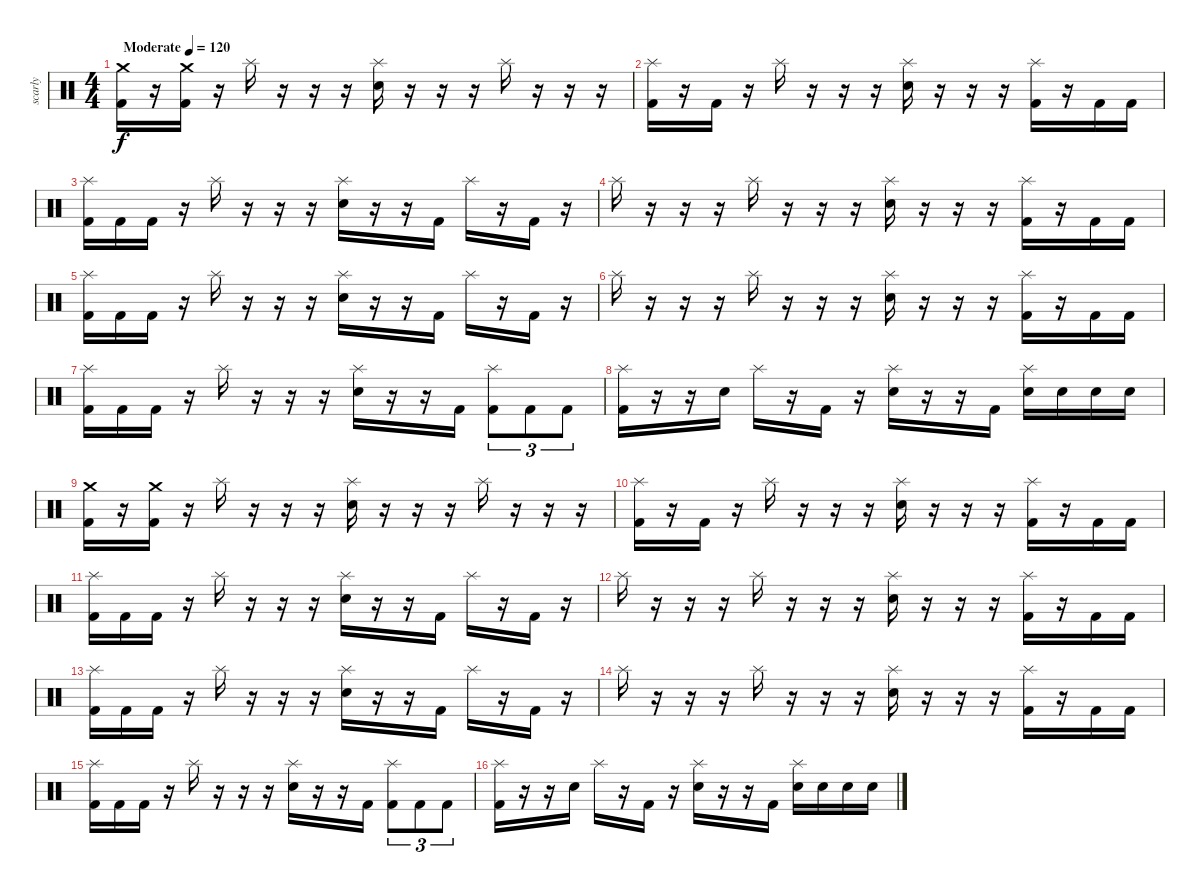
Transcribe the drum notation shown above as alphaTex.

\track ("scarly" "scarly") {instrument percussion}
\staff {score}
\articulation defaults
\ts (4 4)
\tempo (120 "Moderate")
\clef neutral
\ks c
("Kick (hit) 2" "Crash medium (hit)").16{dy f} r.16 ("Kick (hit) 2" "Crash medium (hit)").16 r.16 "Splash (hit)".16 r.16 r.16 r.16 ("Snare (hit) 2" "Splash (hit)").16 r.16 r.16 r.16 "Splash (hit)".16 r.16 r.16 r.16 |
("Kick (hit) 2" "Splash (hit)").16 r.16 "Kick (hit) 2".16 r.16 "Splash (hit)".16 r.16 r.16 r.16 ("Snare (hit) 2" "Splash (hit)").16 r.16 r.16 r.16 ("Kick (hit) 2" "Splash (hit)").16 r.16 "Kick (hit) 2".16 "Kick (hit) 2".16 |
("Kick (hit) 2" "Splash (hit)").16 "Kick (hit) 2".16 "Kick (hit) 2".16 r.16 "Splash (hit)".16 r.16 r.16 r.16 ("Snare (hit) 2" "Splash (hit)").16 r.16 r.16 "Kick (hit) 2".16 "Splash (hit)".16 r.16 "Kick (hit) 2".16 r.16 |
"Splash (hit)".16 r.16 r.16 r.16 "Splash (hit)".16 r.16 r.16 r.16 ("Snare (hit) 2" "Splash (hit)").16 r.16 r.16 r.16 ("Kick (hit) 2" "Splash (hit)").16 r.16 "Kick (hit) 2".16 "Kick (hit) 2".16 |
("Kick (hit) 2" "Splash (hit)").16 "Kick (hit) 2".16 "Kick (hit) 2".16 r.16 "Splash (hit)".16 r.16 r.16 r.16 ("Snare (hit) 2" "Splash (hit)").16 r.16 r.16 "Kick (hit) 2".16 "Splash (hit)".16 r.16 "Kick (hit) 2".16 r.16 |
"Splash (hit)".16 r.16 r.16 r.16 "Splash (hit)".16 r.16 r.16 r.16 ("Snare (hit) 2" "Splash (hit)").16 r.16 r.16 r.16 ("Kick (hit) 2" "Splash (hit)").16 r.16 "Kick (hit) 2".16 "Kick (hit) 2".16 |
("Kick (hit) 2" "Splash (hit)").16 "Kick (hit) 2".16 "Kick (hit) 2".16 r.16 "Splash (hit)".16 r.16 r.16 r.16 ("Snare (hit) 2" "Splash (hit)").16 r.16 r.16 "Kick (hit) 2".16 ("Kick (hit) 2" "Splash (hit)").8{tu (3 2)} "Kick (hit) 2".8{tu (3 2)} "Kick (hit) 2".8{tu (3 2)} |
("Kick (hit) 2" "Splash (hit)").16 r.16 r.16 "Snare (hit) 2".16 "Splash (hit)".16 r.16 "Kick (hit) 2".16 r.16 ("Snare (hit) 2" "Splash (hit)").16 r.16 r.16 "Kick (hit) 2".16 ("Snare (hit) 2" "Splash (hit)").16 "Snare (hit) 2".16 "Snare (hit) 2".16 "Snare (hit) 2".16 |
("Kick (hit) 2" "Crash medium (hit)").16 r.16 ("Kick (hit) 2" "Crash medium (hit)").16 r.16 "Splash (hit)".16 r.16 r.16 r.16 ("Snare (hit) 2" "Splash (hit)").16 r.16 r.16 r.16 "Splash (hit)".16 r.16 r.16 r.16 |
("Kick (hit) 2" "Splash (hit)").16 r.16 "Kick (hit) 2".16 r.16 "Splash (hit)".16 r.16 r.16 r.16 ("Snare (hit) 2" "Splash (hit)").16 r.16 r.16 r.16 ("Kick (hit) 2" "Splash (hit)").16 r.16 "Kick (hit) 2".16 "Kick (hit) 2".16 |
("Kick (hit) 2" "Splash (hit)").16 "Kick (hit) 2".16 "Kick (hit) 2".16 r.16 "Splash (hit)".16 r.16 r.16 r.16 ("Snare (hit) 2" "Splash (hit)").16 r.16 r.16 "Kick (hit) 2".16 "Splash (hit)".16 r.16 "Kick (hit) 2".16 r.16 |
"Splash (hit)".16 r.16 r.16 r.16 "Splash (hit)".16 r.16 r.16 r.16 ("Snare (hit) 2" "Splash (hit)").16 r.16 r.16 r.16 ("Kick (hit) 2" "Splash (hit)").16 r.16 "Kick (hit) 2".16 "Kick (hit) 2".16 |
("Kick (hit) 2" "Splash (hit)").16 "Kick (hit) 2".16 "Kick (hit) 2".16 r.16 "Splash (hit)".16 r.16 r.16 r.16 ("Snare (hit) 2" "Splash (hit)").16 r.16 r.16 "Kick (hit) 2".16 "Splash (hit)".16 r.16 "Kick (hit) 2".16 r.16 |
"Splash (hit)".16 r.16 r.16 r.16 "Splash (hit)".16 r.16 r.16 r.16 ("Snare (hit) 2" "Splash (hit)").16 r.16 r.16 r.16 ("Kick (hit) 2" "Splash (hit)").16 r.16 "Kick (hit) 2".16 "Kick (hit) 2".16 |
("Kick (hit) 2" "Splash (hit)").16 "Kick (hit) 2".16 "Kick (hit) 2".16 r.16 "Splash (hit)".16 r.16 r.16 r.16 ("Snare (hit) 2" "Splash (hit)").16 r.16 r.16 "Kick (hit) 2".16 ("Kick (hit) 2" "Splash (hit)").8{tu (3 2)} "Kick (hit) 2".8{tu (3 2)} "Kick (hit) 2".8{tu (3 2)} |
("Kick (hit) 2" "Splash (hit)").16 r.16 r.16 "Snare (hit) 2".16 "Splash (hit)".16 r.16 "Kick (hit) 2".16 r.16 ("Snare (hit) 2" "Splash (hit)").16 r.16 r.16 "Kick (hit) 2".16 ("Snare (hit) 2" "Splash (hit)").16 "Snare (hit) 2".16 "Snare (hit) 2".16 "Snare (hit) 2".16
